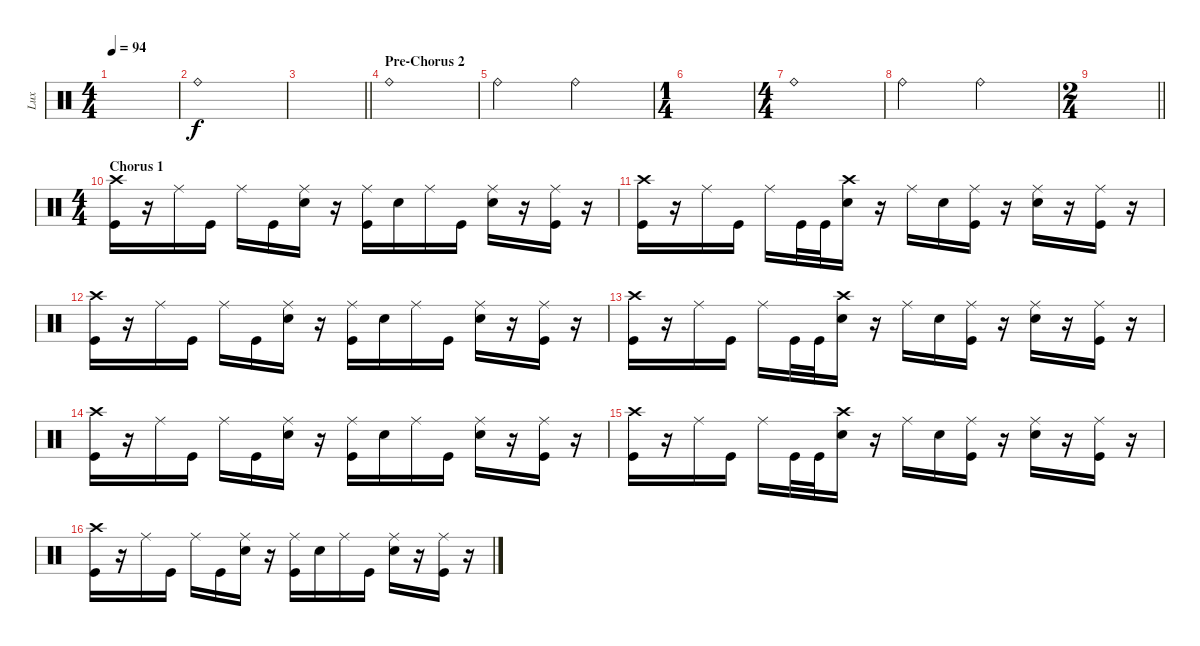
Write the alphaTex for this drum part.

\track ("Lux" "Lux") {instrument percussion}
\staff {score}
\articulation defaults
\ts (4 4)
\tempo 94
\clef neutral
\ks c
|
"Ride (bell)".1 |
\barLineRight lightlight
|
\section ("" "Pre-Chorus 2")
"Ride (bell)".1 |
"Ride (bell)".2 "Ride (bell)".2 |
\ts (1 4)
|
\ts (4 4)
"Ride (bell)".1 |
"Ride (bell)".2 "Ride (bell)".2 |
\ts (2 4)
\barLineRight lightlight
|
\ts (4 4)
\section ("" "Chorus 1")
("Crash high (hit)" "Kick (hit)").16 r.16 "Ride (middle)".16 "Kick (hit)".16 "Ride (middle)".16 "Kick (hit)".16 ("Ride (middle)" "Snare (hit) 2").16 r.16 ("Ride (middle)" "Kick (hit)").16 "Snare (hit) 2".16 "Ride (middle)".16 "Kick (hit)".16 ("Ride (middle)" "Snare (hit) 2").16 r.16 ("Ride (middle)" "Kick (hit)").16 r.16 |
("Crash high (hit)" "Kick (hit)").16 r.16 "Ride (middle)".16 "Kick (hit)".16 "Ride (middle)".16 "Kick (hit)".32 "Kick (hit)".32 ("Crash high (hit)" "Snare (hit) 2").16 r.16 "Ride (middle)".16 "Snare (hit) 2".16 ("Ride (middle)" "Kick (hit)").16 r.16 ("Ride (middle)" "Snare (hit) 2").16 r.16 ("Ride (middle)" "Kick (hit)").16 r.16 |
("Crash high (hit)" "Kick (hit)").16 r.16 "Ride (middle)".16 "Kick (hit)".16 "Ride (middle)".16 "Kick (hit)".16 ("Ride (middle)" "Snare (hit) 2").16 r.16 ("Ride (middle)" "Kick (hit)").16 "Snare (hit) 2".16 "Ride (middle)".16 "Kick (hit)".16 ("Ride (middle)" "Snare (hit) 2").16 r.16 ("Ride (middle)" "Kick (hit)").16 r.16 |
("Crash high (hit)" "Kick (hit)").16 r.16 "Ride (middle)".16 "Kick (hit)".16 "Ride (middle)".16 "Kick (hit)".32 "Kick (hit)".32 ("Crash high (hit)" "Snare (hit) 2").16 r.16 "Ride (middle)".16 "Snare (hit) 2".16 ("Ride (middle)" "Kick (hit)").16 r.16 ("Ride (middle)" "Snare (hit) 2").16 r.16 ("Ride (middle)" "Kick (hit)").16 r.16 |
("Crash high (hit)" "Kick (hit)").16 r.16 "Ride (middle)".16 "Kick (hit)".16 "Ride (middle)".16 "Kick (hit)".16 ("Ride (middle)" "Snare (hit) 2").16 r.16 ("Ride (middle)" "Kick (hit)").16 "Snare (hit) 2".16 "Ride (middle)".16 "Kick (hit)".16 ("Ride (middle)" "Snare (hit) 2").16 r.16 ("Ride (middle)" "Kick (hit)").16 r.16 |
("Crash high (hit)" "Kick (hit)").16 r.16 "Ride (middle)".16 "Kick (hit)".16 "Ride (middle)".16 "Kick (hit)".32 "Kick (hit)".32 ("Crash high (hit)" "Snare (hit) 2").16 r.16 "Ride (middle)".16 "Snare (hit) 2".16 ("Ride (middle)" "Kick (hit)").16 r.16 ("Ride (middle)" "Snare (hit) 2").16 r.16 ("Ride (middle)" "Kick (hit)").16 r.16 |
("Crash high (hit)" "Kick (hit)").16 r.16 "Ride (middle)".16 "Kick (hit)".16 "Ride (middle)".16 "Kick (hit)".16 ("Ride (middle)" "Snare (hit) 2").16 r.16 ("Ride (middle)" "Kick (hit)").16 "Snare (hit) 2".16 "Ride (middle)".16 "Kick (hit)".16 ("Ride (middle)" "Snare (hit) 2").16 r.16 ("Ride (middle)" "Kick (hit)").16 r.16
